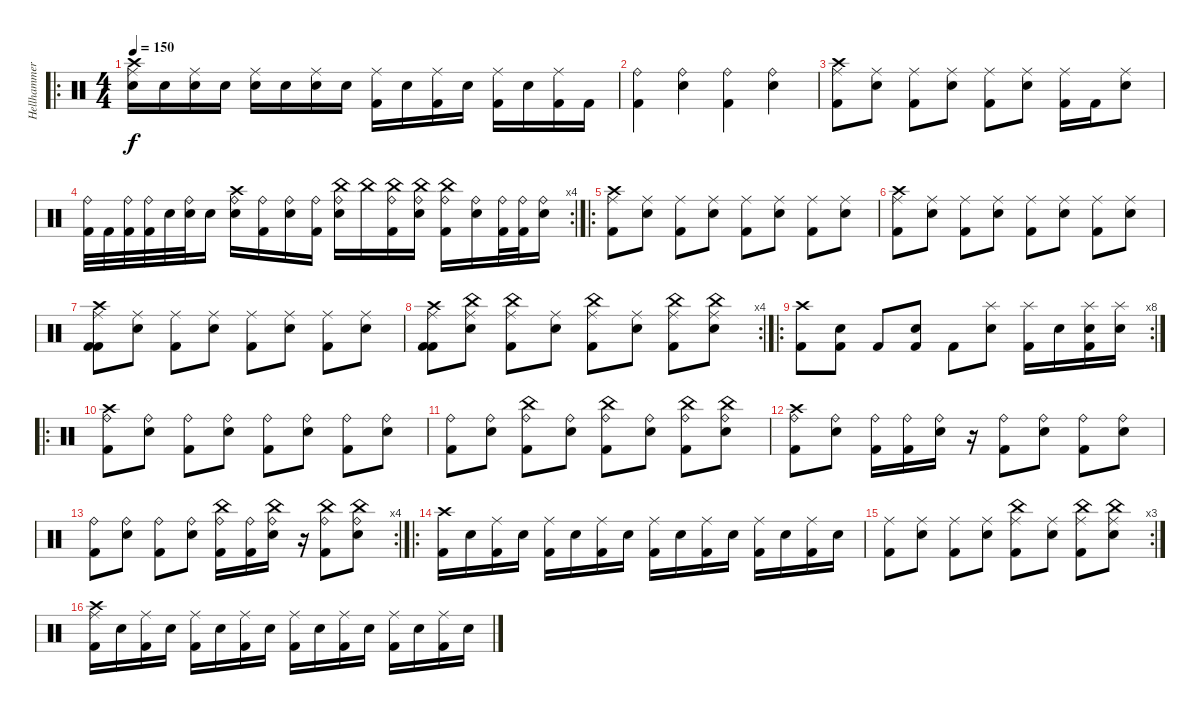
\track ("Hellhammer" "Hellhammer") {instrument percussion}
\staff {score}
\articulation defaults
\ro
\ts (4 4)
\tempo 150
\clef neutral
\ks c
("Electric Snare (hit)" "Crash high (hit)" "Ride (middle)").16{dy f} "Electric Snare (hit)".16 ("Electric Snare (hit)" "Ride (middle)").16 "Electric Snare (hit)".16 ("Electric Snare (hit)" "Ride (middle)").16 "Electric Snare (hit)".16 ("Electric Snare (hit)" "Ride (middle)").16 "Electric Snare (hit)".16 ("Kick (hit) 2" "Ride (middle)").16 "Electric Snare (hit)".16 ("Kick (hit) 2" "Ride (middle)").16 "Electric Snare (hit)".16 ("Kick (hit) 2" "Ride (middle)").16 "Electric Snare (hit)".16 ("Kick (hit) 2" "Ride (middle)").16 "Kick (hit) 2".16 |
("Kick (hit) 2" "Ride (bell)").4 ("Electric Snare (hit)" "Ride (bell)").4 ("Kick (hit) 2" "Ride (bell)").4 ("Electric Snare (hit)" "Ride (bell)").4 |
("Kick (hit) 2" "Crash high (hit)" "Ride (middle)").8 ("Electric Snare (hit)" "Ride (middle)").8 ("Kick (hit) 2" "Ride (middle)").8 ("Electric Snare (hit)" "Ride (middle)").8 ("Kick (hit) 2" "Ride (middle)").8 ("Electric Snare (hit)" "Ride (middle)").8 ("Kick (hit) 2" "Ride (middle)").16 "Kick (hit) 2".16 ("Electric Snare (hit)" "Ride (middle)").8 |
\rc 4
("Kick (hit) 2" "Ride (bell)").32 "Kick (hit) 2".32 ("Kick (hit) 2" "Ride (bell)").32 ("Kick (hit) 2" "Ride (bell)").32 "Electric Snare (hit)".32 ("Electric Snare (hit)" "Ride (bell)").32 "Electric Snare (hit)".16 ("Electric Snare (hit)" "Ride (bell)" "Crash high (hit)").16 ("Kick (hit) 2" "Ride (bell)").16 ("Electric Snare (hit)" "Ride (bell)").16 ("Kick (hit) 2" "Ride (bell)").16 ("Electric Snare (hit)" "Ride (bell)" "China (hit)").16 "China (hit)".16 ("Kick (hit) 2" "Ride (bell)" "China (hit)").16 ("Electric Snare (hit)" "Ride (bell)" "China (hit)").16 ("Kick (hit) 2" "Ride (bell)" "China (hit)").16 ("Electric Snare (hit)" "Ride (bell)").16 ("Kick (hit) 2" "Ride (bell)").32 ("Kick (hit) 2" "Ride (bell)").32 ("Electric Snare (hit)" "Ride (bell)").16 |
\ro
("Kick (hit) 2" "Ride (middle)" "Crash high (hit)").8 ("Electric Snare (hit)" "Ride (middle)").8 ("Kick (hit) 2" "Ride (middle)").8 ("Electric Snare (hit)" "Ride (middle)").8 ("Kick (hit) 2" "Ride (middle)").8 ("Electric Snare (hit)" "Ride (middle)").8 ("Kick (hit) 2" "Ride (middle)").8 ("Electric Snare (hit)" "Ride (middle)").8 |
("Kick (hit) 2" "Ride (middle)" "Crash high (hit)").8 ("Electric Snare (hit)" "Ride (middle)").8 ("Kick (hit) 2" "Ride (middle)").8 ("Electric Snare (hit)" "Ride (middle)").8 ("Kick (hit) 2" "Ride (middle)").8 ("Electric Snare (hit)" "Ride (middle)").8 ("Kick (hit) 2" "Ride (middle)").8 ("Electric Snare (hit)" "Ride (middle)").8 |
("Kick (hit) 2" "Kick (hit) 2" "Ride (middle)" "Crash high (hit)").8 ("Electric Snare (hit)" "Ride (middle)").8 ("Kick (hit) 2" "Ride (middle)").8 ("Electric Snare (hit)" "Ride (middle)").8 ("Kick (hit) 2" "Ride (middle)").8 ("Electric Snare (hit)" "Ride (middle)").8 ("Kick (hit) 2" "Ride (middle)").8 ("Electric Snare (hit)" "Ride (middle)").8 |
\rc 4
("Kick (hit) 2" "Kick (hit) 2" "Ride (middle)" "Crash high (hit)").8 ("Electric Snare (hit)" "Ride (middle)" "China (hit)").8 ("Kick (hit) 2" "Ride (middle)" "China (hit)").8 ("Electric Snare (hit)" "Ride (middle)").8 ("Kick (hit) 2" "Ride (middle)" "China (hit)").8 ("Electric Snare (hit)" "Ride (middle)").8 ("Kick (hit) 2" "Ride (middle)" "China (hit)").8 ("Electric Snare (hit)" "Ride (middle)" "China (hit)").8 |
\ro
\rc 8
("Crash high (hit)" "Kick (hit) 2").8 ("Electric Snare (hit)" "Kick (hit) 2").8 "Kick (hit) 2".8 ("Electric Snare (hit)" "Kick (hit) 2").8 "Kick (hit) 2".8 ("Splash (hit)" "Electric Snare (hit)").8 ("Splash (hit)" "Kick (hit) 2").16 "Electric Snare (hit)".16 ("Splash (hit)" "Electric Snare (hit)" "Kick (hit) 2").16 ("Splash (hit)" "Electric Snare (hit)").16 |
\ro
("Crash high (hit)" "Ride (bell)" "Kick (hit) 2").8 ("Ride (bell)" "Electric Snare (hit)").8 ("Ride (bell)" "Kick (hit) 2").8 ("Ride (bell)" "Electric Snare (hit)").8 ("Ride (bell)" "Kick (hit) 2").8 ("Ride (bell)" "Electric Snare (hit)").8 ("Ride (bell)" "Kick (hit) 2").8 ("Ride (bell)" "Electric Snare (hit)").8 |
("Ride (bell)" "Kick (hit) 2").8 ("Ride (bell)" "Electric Snare (hit)").8 ("China (hit)" "Ride (bell)" "Kick (hit) 2").8 ("Ride (bell)" "Electric Snare (hit)").8 ("China (hit)" "Ride (bell)" "Kick (hit) 2").8 ("Ride (bell)" "Electric Snare (hit)").8 ("China (hit)" "Ride (bell)" "Kick (hit) 2").8 ("China (hit)" "Ride (bell)" "Electric Snare (hit)").8 |
("Crash high (hit)" "Ride (bell)" "Kick (hit) 2").8 ("Ride (bell)" "Electric Snare (hit)").8 ("Ride (bell)" "Kick (hit) 2").16 ("Ride (bell)" "Kick (hit) 2").16 ("Ride (bell)" "Electric Snare (hit)").16 r.16 ("Ride (bell)" "Kick (hit) 2").8 ("Ride (bell)" "Electric Snare (hit)").8 ("Ride (bell)" "Kick (hit) 2").8 ("Ride (bell)" "Electric Snare (hit)").8 |
\rc 4
("Ride (bell)" "Kick (hit) 2").8 ("Ride (bell)" "Electric Snare (hit)").8 ("Ride (bell)" "Kick (hit) 2").8 ("Ride (bell)" "Electric Snare (hit)").8 ("China (hit)" "Ride (bell)" "Kick (hit) 2").16 ("Ride (bell)" "Kick (hit) 2").16 ("China (hit)" "Ride (bell)" "Electric Snare (hit)").16 r.16 ("China (hit)" "Ride (bell)" "Kick (hit) 2").8 ("China (hit)" "Ride (bell)" "Electric Snare (hit)").8 |
\ro
("Crash high (hit)" "Kick (hit) 2").16 "Electric Snare (hit)".16 ("Ride (middle)" "Kick (hit) 2").16 "Electric Snare (hit)".16 ("Ride (middle)" "Kick (hit) 2").16 "Electric Snare (hit)".16 ("Ride (middle)" "Kick (hit) 2").16 "Electric Snare (hit)".16 ("Ride (middle)" "Kick (hit) 2").16 "Electric Snare (hit)".16 ("Ride (middle)" "Kick (hit) 2").16 "Electric Snare (hit)".16 ("Ride (middle)" "Kick (hit) 2").16 "Electric Snare (hit)".16 ("Ride (middle)" "Kick (hit) 2").16 "Electric Snare (hit)".16 |
\rc 3
("Ride (middle)" "Kick (hit) 2").8 ("Ride (middle)" "Electric Snare (hit)").8 ("Ride (middle)" "Kick (hit) 2").8 ("Ride (middle)" "Electric Snare (hit)").8 ("China (hit)" "Ride (middle)" "Kick (hit) 2").8 ("Ride (middle)" "Electric Snare (hit)").8 ("China (hit)" "Ride (middle)" "Kick (hit) 2").8 ("China (hit)" "Ride (middle)" "Electric Snare (hit)").8 |
("Crash high (hit)" "Ride (middle)" "Kick (hit) 2").16 "Electric Snare (hit)".16 ("Ride (middle)" "Kick (hit) 2").16 "Electric Snare (hit)".16 ("Ride (middle)" "Kick (hit) 2").16 "Electric Snare (hit)".16 ("Ride (middle)" "Kick (hit) 2").16 "Electric Snare (hit)".16 ("Ride (middle)" "Kick (hit) 2").16 "Electric Snare (hit)".16 ("Ride (middle)" "Kick (hit) 2").16 "Electric Snare (hit)".16 ("Ride (middle)" "Kick (hit) 2").16 "Electric Snare (hit)".16 ("Ride (middle)" "Kick (hit) 2").16 "Electric Snare (hit)".16
